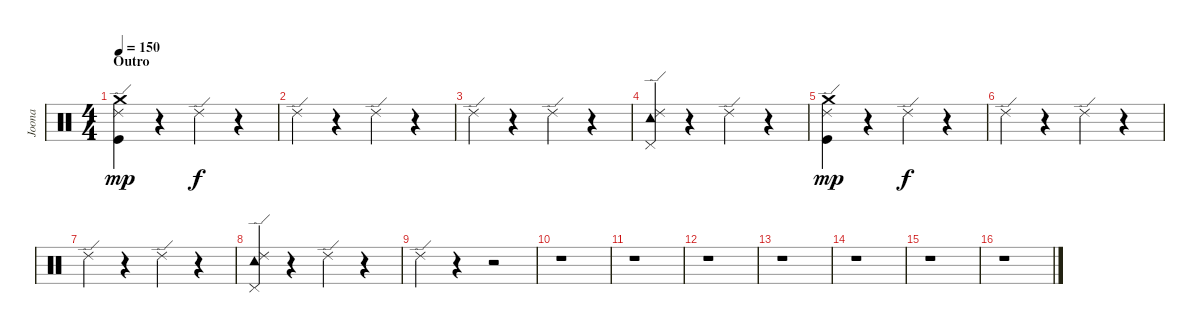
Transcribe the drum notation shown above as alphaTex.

\track ("Joona" "Joona") {instrument percussion}
\staff {score}
\articulation defaults
\ts (4 4)
\section ("" "Outro")
\tempo 150
\clef neutral
\ks c
("Crash medium (hit)" "Ride (edge) 2" "Kick (hit)").4{dy mp} r.4 "Ride (edge) 2".4{dy f} r.4 |
"Ride (edge) 2".4 r.4 "Ride (edge) 2".4 r.4 |
"Ride (edge) 2".4 r.4 "Ride (edge) 2".4 r.4 |
("Tambourine (hit)" "Ride (edge) 2" "Pedal Hi-Hat (hit)").4 r.4 "Ride (edge) 2".4 r.4 |
("Crash medium (hit)" "Ride (edge) 2" "Kick (hit)").4{dy mp} r.4 "Ride (edge) 2".4{dy f} r.4 |
"Ride (edge) 2".4 r.4 "Ride (edge) 2".4 r.4 |
"Ride (edge) 2".4 r.4 "Ride (edge) 2".4 r.4 |
("Tambourine (hit)" "Ride (edge) 2" "Pedal Hi-Hat (hit)").4 r.4 "Ride (edge) 2".4 r.4 |
"Ride (edge) 2".4 r.4 r.2 |
r.1 |
r.1 |
r.1 |
r.1 |
r.1 |
r.1 |
r.1
